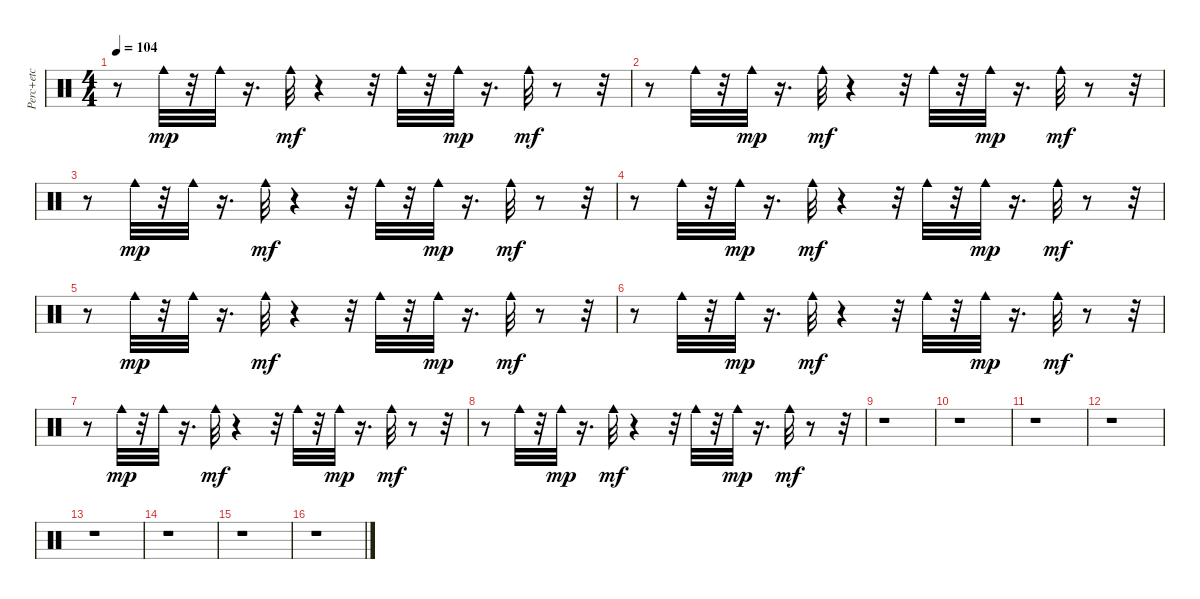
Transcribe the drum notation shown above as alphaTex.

\track ("Perc+etc" "Perc+etc") {instrument percussion}
\staff {score}
\articulation defaults
\ts (4 4)
\tempo 104
\clef neutral
\ks c
r.8{dy mf} "Cowbell medium (hit)".32{dy mp} r.32 "Cowbell medium (hit)".32 r.16{d} "Cowbell medium (hit)".32{dy mf} r.4 r.32 "Cowbell medium (hit)".32 r.32 "Cowbell medium (hit)".32{dy mp} r.16{d} "Cowbell medium (hit)".32{dy mf} r.8 r.32 |
r.8 "Cowbell medium (hit)".32 r.32 "Cowbell medium (hit)".32{dy mp} r.16{d} "Cowbell medium (hit)".32{dy mf} r.4 r.32 "Cowbell medium (hit)".32 r.32 "Cowbell medium (hit)".32{dy mp} r.16{d} "Cowbell medium (hit)".32{dy mf} r.8 r.32 |
r.8 "Cowbell medium (hit)".32{dy mp} r.32 "Cowbell medium (hit)".32 r.16{d} "Cowbell medium (hit)".32{dy mf} r.4 r.32 "Cowbell medium (hit)".32 r.32 "Cowbell medium (hit)".32{dy mp} r.16{d} "Cowbell medium (hit)".32{dy mf} r.8 r.32 |
r.8 "Cowbell medium (hit)".32 r.32 "Cowbell medium (hit)".32{dy mp} r.16{d} "Cowbell medium (hit)".32{dy mf} r.4 r.32 "Cowbell medium (hit)".32 r.32 "Cowbell medium (hit)".32{dy mp} r.16{d} "Cowbell medium (hit)".32{dy mf} r.8 r.32 |
r.8 "Cowbell medium (hit)".32{dy mp} r.32 "Cowbell medium (hit)".32 r.16{d} "Cowbell medium (hit)".32{dy mf} r.4 r.32 "Cowbell medium (hit)".32 r.32 "Cowbell medium (hit)".32{dy mp} r.16{d} "Cowbell medium (hit)".32{dy mf} r.8 r.32 |
r.8 "Cowbell medium (hit)".32 r.32 "Cowbell medium (hit)".32{dy mp} r.16{d} "Cowbell medium (hit)".32{dy mf} r.4 r.32 "Cowbell medium (hit)".32 r.32 "Cowbell medium (hit)".32{dy mp} r.16{d} "Cowbell medium (hit)".32{dy mf} r.8 r.32 |
r.8 "Cowbell medium (hit)".32{dy mp} r.32 "Cowbell medium (hit)".32 r.16{d} "Cowbell medium (hit)".32{dy mf} r.4 r.32 "Cowbell medium (hit)".32 r.32 "Cowbell medium (hit)".32{dy mp} r.16{d} "Cowbell medium (hit)".32{dy mf} r.8 r.32 |
r.8 "Cowbell medium (hit)".32 r.32 "Cowbell medium (hit)".32{dy mp} r.16{d} "Cowbell medium (hit)".32{dy mf} r.4 r.32 "Cowbell medium (hit)".32 r.32 "Cowbell medium (hit)".32{dy mp} r.16{d} "Cowbell medium (hit)".32{dy mf} r.8 r.32 |
r.1 |
r.1 |
r.1 |
r.1 |
r.1 |
r.1 |
r.1 |
r.1
